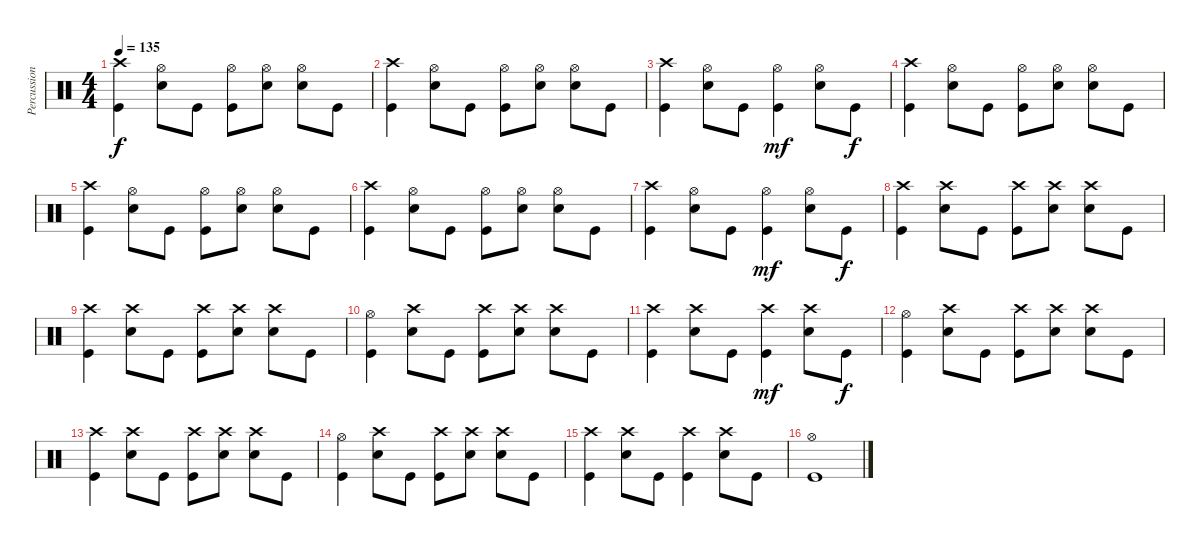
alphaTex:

\track ("Percussion" "Percussion") {instrument percussion}
\staff {score}
\articulation defaults
\ts (4 4)
\tempo 135
\clef neutral
\ks c
("Crash high (hit)" "Kick (hit)").4{dy f} ("Hi-Hat (open)" "Electric Snare (hit)").8 "Kick (hit)".8 ("Hi-Hat (open)" "Kick (hit)").8 ("Hi-Hat (open)" "Electric Snare (hit)").8 ("Hi-Hat (open)" "Electric Snare (hit)").8 "Kick (hit)".8 |
("Crash high (hit)" "Kick (hit)").4 ("Hi-Hat (open)" "Electric Snare (hit)").8 "Kick (hit)".8 ("Hi-Hat (open)" "Kick (hit)").8 ("Hi-Hat (open)" "Electric Snare (hit)").8 ("Hi-Hat (open)" "Electric Snare (hit)").8 "Kick (hit)".8 |
("Crash high (hit)" "Kick (hit)").4 ("Hi-Hat (open)" "Electric Snare (hit)").8 "Kick (hit)".8 ("Hi-Hat (open)" "Kick (hit)").4{dy mf} ("Hi-Hat (open)" "Electric Snare (hit)").8 "Kick (hit)".8{dy f} |
("Crash high (hit)" "Kick (hit)").4 ("Hi-Hat (open)" "Electric Snare (hit)").8 "Kick (hit)".8 ("Hi-Hat (open)" "Kick (hit)").8 ("Hi-Hat (open)" "Electric Snare (hit)").8 ("Hi-Hat (open)" "Electric Snare (hit)").8 "Kick (hit)".8 |
("Crash high (hit)" "Kick (hit)").4 ("Hi-Hat (open)" "Electric Snare (hit)").8 "Kick (hit)".8 ("Hi-Hat (open)" "Kick (hit)").8 ("Hi-Hat (open)" "Electric Snare (hit)").8 ("Hi-Hat (open)" "Electric Snare (hit)").8 "Kick (hit)".8 |
("Crash high (hit)" "Kick (hit)").4 ("Hi-Hat (open)" "Electric Snare (hit)").8 "Kick (hit)".8 ("Hi-Hat (open)" "Kick (hit)").8 ("Hi-Hat (open)" "Electric Snare (hit)").8 ("Hi-Hat (open)" "Electric Snare (hit)").8 "Kick (hit)".8 |
("Crash high (hit)" "Kick (hit)").4 ("Hi-Hat (open)" "Electric Snare (hit)").8 "Kick (hit)".8 ("Hi-Hat (open)" "Kick (hit)").4{dy mf} ("Hi-Hat (open)" "Electric Snare (hit)").8 "Kick (hit)".8{dy f} |
("Crash high (hit)" "Kick (hit)").4 ("Crash high (hit)" "Electric Snare (hit)").8 "Kick (hit)".8 ("Crash high (hit)" "Kick (hit)").8 ("Crash high (hit)" "Electric Snare (hit)").8 ("Crash high (hit)" "Electric Snare (hit)").8 "Kick (hit)".8 |
("Crash high (hit)" "Kick (hit)").4 ("Crash high (hit)" "Electric Snare (hit)").8 "Kick (hit)".8 ("Crash high (hit)" "Kick (hit)").8 ("Crash high (hit)" "Electric Snare (hit)").8 ("Crash high (hit)" "Electric Snare (hit)").8 "Kick (hit)".8 |
("Hi-Hat (open)" "Kick (hit)").4 ("Crash high (hit)" "Electric Snare (hit)").8 "Kick (hit)".8 ("Crash high (hit)" "Kick (hit)").8 ("Crash high (hit)" "Electric Snare (hit)").8 ("Crash high (hit)" "Electric Snare (hit)").8 "Kick (hit)".8 |
("Crash high (hit)" "Kick (hit)").4 ("Crash high (hit)" "Electric Snare (hit)").8 "Kick (hit)".8 ("Crash high (hit)" "Kick (hit)").4{dy mf} ("Crash high (hit)" "Electric Snare (hit)").8 "Kick (hit)".8{dy f} |
("Hi-Hat (open)" "Kick (hit)").4 ("Crash high (hit)" "Electric Snare (hit)").8 "Kick (hit)".8 ("Crash high (hit)" "Kick (hit)").8 ("Crash high (hit)" "Electric Snare (hit)").8 ("Crash high (hit)" "Electric Snare (hit)").8 "Kick (hit)".8 |
("Crash high (hit)" "Kick (hit)").4 ("Crash high (hit)" "Electric Snare (hit)").8 "Kick (hit)".8 ("Crash high (hit)" "Kick (hit)").8 ("Crash high (hit)" "Electric Snare (hit)").8 ("Crash high (hit)" "Electric Snare (hit)").8 "Kick (hit)".8 |
("Hi-Hat (open)" "Kick (hit)").4 ("Crash high (hit)" "Electric Snare (hit)").8 "Kick (hit)".8 ("Crash high (hit)" "Kick (hit)").8 ("Crash high (hit)" "Electric Snare (hit)").8 ("Crash high (hit)" "Electric Snare (hit)").8 "Kick (hit)".8 |
("Crash high (hit)" "Kick (hit)").4 ("Crash high (hit)" "Electric Snare (hit)").8 "Kick (hit)".8 ("Crash high (hit)" "Kick (hit)").4 ("Crash high (hit)" "Electric Snare (hit)").8 "Kick (hit)".8 |
("Hi-Hat (open)" "Kick (hit)").1
